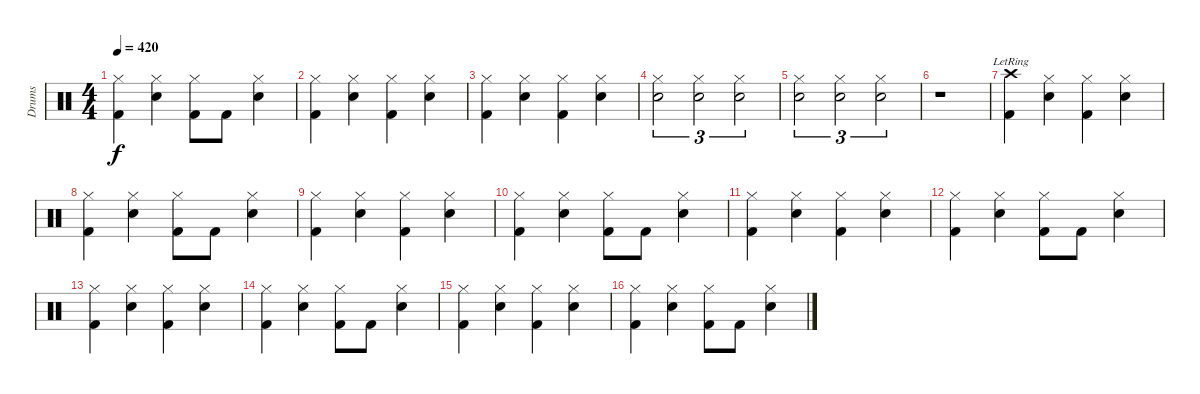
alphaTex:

\track ("Drums" "Drums") {instrument percussion}
\staff {score}
\articulation defaults
\ts (4 4)
\tempo 420
\clef neutral
\ks c
("Hi-Hat (closed)" "Kick (hit) 2").4{dy f} ("Hi-Hat (closed)" "Snare (hit) 2").4 ("Hi-Hat (closed)" "Kick (hit) 2").8 "Kick (hit) 2".8 ("Hi-Hat (closed)" "Snare (hit) 2").4 |
("Hi-Hat (closed)" "Kick (hit) 2").4 ("Hi-Hat (closed)" "Snare (hit) 2").4 ("Hi-Hat (closed)" "Kick (hit) 2").4 ("Hi-Hat (closed)" "Snare (hit) 2").4 |
("Hi-Hat (closed)" "Kick (hit) 2").4 ("Hi-Hat (closed)" "Snare (hit) 2").4 ("Hi-Hat (closed)" "Kick (hit) 2").4 ("Hi-Hat (closed)" "Snare (hit) 2").4 |
("Hi-Hat (closed)" "Snare (hit) 2").2{tu (3 2)} ("Hi-Hat (closed)" "Snare (hit) 2").2{tu (3 2)} ("Hi-Hat (closed)" "Snare (hit) 2").2{tu (3 2)} |
("Hi-Hat (closed)" "Snare (hit) 2").2{tu (3 2)} ("Hi-Hat (closed)" "Snare (hit) 2").2{tu (3 2)} ("Hi-Hat (closed)" "Snare (hit) 2").2{tu (3 2)} |
r.1 |
("Crash high (hit)"{lr} "Kick (hit) 2").4 ("Hi-Hat (closed)" "Snare (hit) 2").4 ("Hi-Hat (closed)" "Kick (hit) 2").4 ("Hi-Hat (closed)" "Snare (hit) 2").4 |
("Hi-Hat (closed)" "Kick (hit) 2").4 ("Hi-Hat (closed)" "Snare (hit) 2").4 ("Hi-Hat (closed)" "Kick (hit) 2").8 "Kick (hit) 2".8 ("Hi-Hat (closed)" "Snare (hit) 2").4 |
("Hi-Hat (closed)" "Kick (hit) 2").4 ("Hi-Hat (closed)" "Snare (hit) 2").4 ("Hi-Hat (closed)" "Kick (hit) 2").4 ("Hi-Hat (closed)" "Snare (hit) 2").4 |
("Hi-Hat (closed)" "Kick (hit) 2").4 ("Hi-Hat (closed)" "Snare (hit) 2").4 ("Hi-Hat (closed)" "Kick (hit) 2").8 "Kick (hit) 2".8 ("Hi-Hat (closed)" "Snare (hit) 2").4 |
("Hi-Hat (closed)" "Kick (hit) 2").4 ("Hi-Hat (closed)" "Snare (hit) 2").4 ("Hi-Hat (closed)" "Kick (hit) 2").4 ("Hi-Hat (closed)" "Snare (hit) 2").4 |
("Hi-Hat (closed)" "Kick (hit) 2").4 ("Hi-Hat (closed)" "Snare (hit) 2").4 ("Hi-Hat (closed)" "Kick (hit) 2").8 "Kick (hit) 2".8 ("Hi-Hat (closed)" "Snare (hit) 2").4 |
("Hi-Hat (closed)" "Kick (hit) 2").4 ("Hi-Hat (closed)" "Snare (hit) 2").4 ("Hi-Hat (closed)" "Kick (hit) 2").4 ("Hi-Hat (closed)" "Snare (hit) 2").4 |
("Hi-Hat (closed)" "Kick (hit) 2").4 ("Hi-Hat (closed)" "Snare (hit) 2").4 ("Hi-Hat (closed)" "Kick (hit) 2").8 "Kick (hit) 2".8 ("Hi-Hat (closed)" "Snare (hit) 2").4 |
("Hi-Hat (closed)" "Kick (hit) 2").4 ("Hi-Hat (closed)" "Snare (hit) 2").4 ("Hi-Hat (closed)" "Kick (hit) 2").4 ("Hi-Hat (closed)" "Snare (hit) 2").4 |
("Hi-Hat (closed)" "Kick (hit) 2").4 ("Hi-Hat (closed)" "Snare (hit) 2").4 ("Hi-Hat (closed)" "Kick (hit) 2").8 "Kick (hit) 2".8 ("Hi-Hat (closed)" "Snare (hit) 2").4
